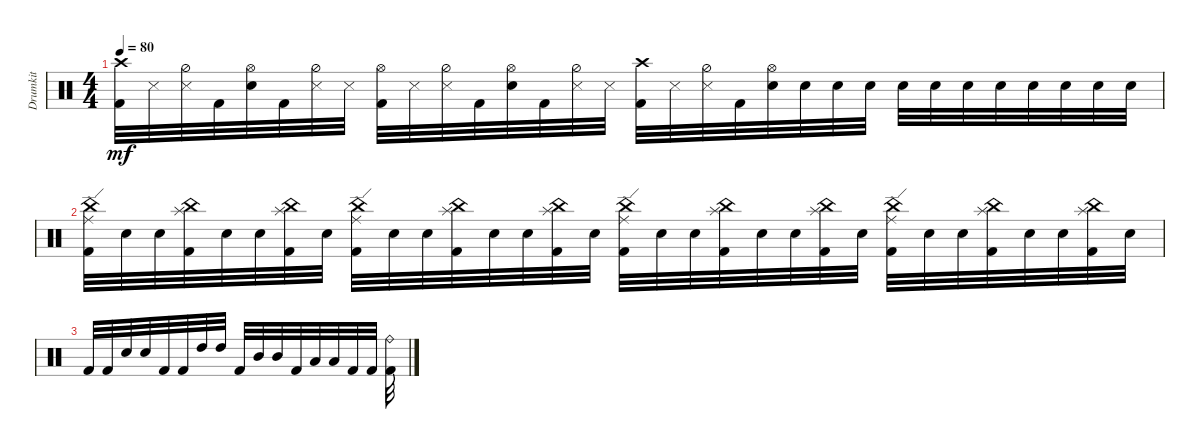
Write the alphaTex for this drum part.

\track ("Drumkit" "Drumkit") {instrument percussion}
\staff {score}
\articulation defaults
\ts (4 4)
\tempo 80
\clef neutral
\ks c
("Kick (hit) 2" "Crash high (hit)").32{dy mf} "Snare (side stick) 3".32 ("Snare (side stick) 3" "Hi-Hat (half)").32 "Kick (hit) 2".32 ("Snare (hit) 2" "Hi-Hat (open)").32 "Kick (hit) 2".32 ("Snare (side stick) 3" "Hi-Hat (half)").32 "Snare (side stick) 3".32 ("Hi-Hat (open)" "Kick (hit) 2").32 "Snare (side stick) 3".32 ("Snare (side stick) 3" "Hi-Hat (half)").32 "Kick (hit) 2".32 ("Snare (hit) 2" "Hi-Hat (open)").32 "Kick (hit) 2".32 ("Hi-Hat (half)" "Snare (side stick) 3").32 "Snare (side stick) 3".32 ("Kick (hit) 2" "Crash high (hit)").32 "Snare (side stick) 3".32 ("Snare (side stick) 3" "Hi-Hat (half)").32 "Kick (hit) 2".32 ("Snare (hit) 2" "Hi-Hat (open)").32 "Snare (hit) 2".32 "Snare (hit) 2".32 "Snare (hit) 2".32 "Snare (hit) 2".32 "Snare (hit) 2".32 "Snare (hit) 2".32 "Snare (hit) 2".32 "Snare (hit) 2".32 "Snare (hit) 2".32 "Snare (hit) 2".32 "Snare (hit) 2".32 |
("Kick (hit) 2" "China (hit)" "Ride (edge)").32 "Snare (hit) 2".32 "Snare (hit) 2".32 ("Kick (hit) 2" "China (hit)" "Splash (hit)").32 "Snare (hit) 2".32 "Snare (hit) 2".32 ("Kick (hit) 2" "China (hit)" "Splash (hit)").32 "Snare (hit) 2".32 ("Kick (hit) 2" "China (hit)" "Ride (edge)").32 "Snare (hit) 2".32 "Snare (hit) 2".32 ("Kick (hit) 2" "China (hit)" "Splash (hit)").32 "Snare (hit) 2".32 "Snare (hit) 2".32 ("Kick (hit) 2" "China (hit)" "Splash (hit)").32 "Snare (hit) 2".32 ("Kick (hit) 2" "China (hit)" "Ride (edge)").32 "Snare (hit) 2".32 "Snare (hit) 2".32 ("Kick (hit) 2" "China (hit)" "Splash (hit)").32 "Snare (hit) 2".32 "Snare (hit) 2".32 ("Kick (hit) 2" "China (hit)" "Splash (hit)").32 "Snare (hit) 2".32 ("Kick (hit) 2" "China (hit)" "Ride (edge)").32 "Snare (hit) 2".32 "Snare (hit) 2".32 ("Kick (hit) 2" "China (hit)" "Splash (hit)").32 "Snare (hit) 2".32 "Snare (hit) 2".32 ("Kick (hit) 2" "China (hit)" "Splash (hit)").32 "Snare (hit) 2".32 |
"Kick (hit) 2".32 "Kick (hit) 2".32 "Snare (hit) 2".32 "Snare (hit) 2".32 "Kick (hit) 2".32 "Kick (hit) 2".32 "High Tom (hit)".32 "High Tom (hit)".32 "Kick (hit) 2".32 "Mid Tom (hit)".32 "Mid Tom (hit)".32 "Kick (hit) 2".32 "Low Tom (hit)".32 "Low Tom (hit)".32 "Kick (hit) 2".32 "Kick (hit) 2".32 ("Ride (bell)" "Kick (hit) 2").32
